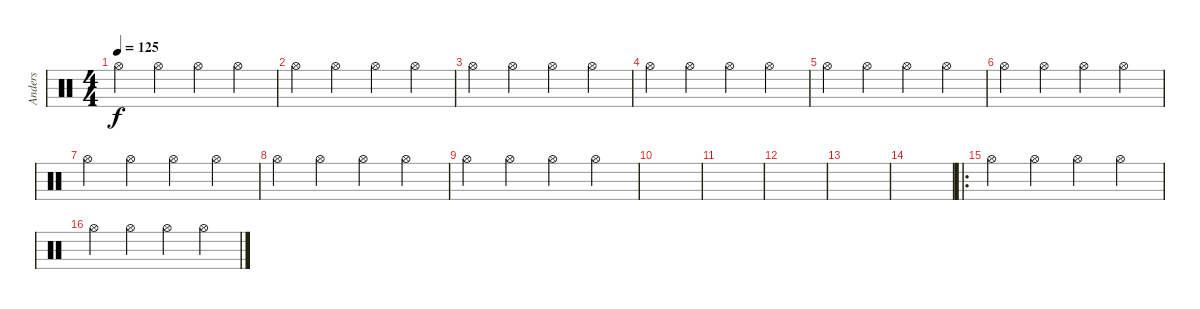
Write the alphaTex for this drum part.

\track ("Anders" "Anders") {instrument percussion}
\staff {score}
\articulation defaults
\ts (4 4)
\tempo 125
\clef neutral
\ks c "Hi-Hat (open)".4{dy f} "Hi-Hat (open)".4 "Hi-Hat (open)".4 "Hi-Hat (open)".4
|
"Hi-Hat (open)".4 "Hi-Hat (open)".4 "Hi-Hat (open)".4 "Hi-Hat (open)".4 |
"Hi-Hat (open)".4 "Hi-Hat (open)".4 "Hi-Hat (open)".4 "Hi-Hat (open)".4 |
"Hi-Hat (open)".4 "Hi-Hat (open)".4 "Hi-Hat (open)".4 "Hi-Hat (open)".4 |
"Hi-Hat (open)".4 "Hi-Hat (open)".4 "Hi-Hat (open)".4 "Hi-Hat (open)".4 |
"Hi-Hat (open)".4 "Hi-Hat (open)".4 "Hi-Hat (open)".4 "Hi-Hat (open)".4 |
"Hi-Hat (open)".4 "Hi-Hat (open)".4 "Hi-Hat (open)".4 "Hi-Hat (open)".4 |
"Hi-Hat (open)".4 "Hi-Hat (open)".4 "Hi-Hat (open)".4 "Hi-Hat (open)".4 |
"Hi-Hat (open)".4 "Hi-Hat (open)".4 "Hi-Hat (open)".4 "Hi-Hat (open)".4 |
|
|
|
|
|
\ro "Hi-Hat (open)".4 "Hi-Hat (open)".4 "Hi-Hat (open)".4 "Hi-Hat (open)".4
|
"Hi-Hat (open)".4 "Hi-Hat (open)".4 "Hi-Hat (open)".4 "Hi-Hat (open)".4
